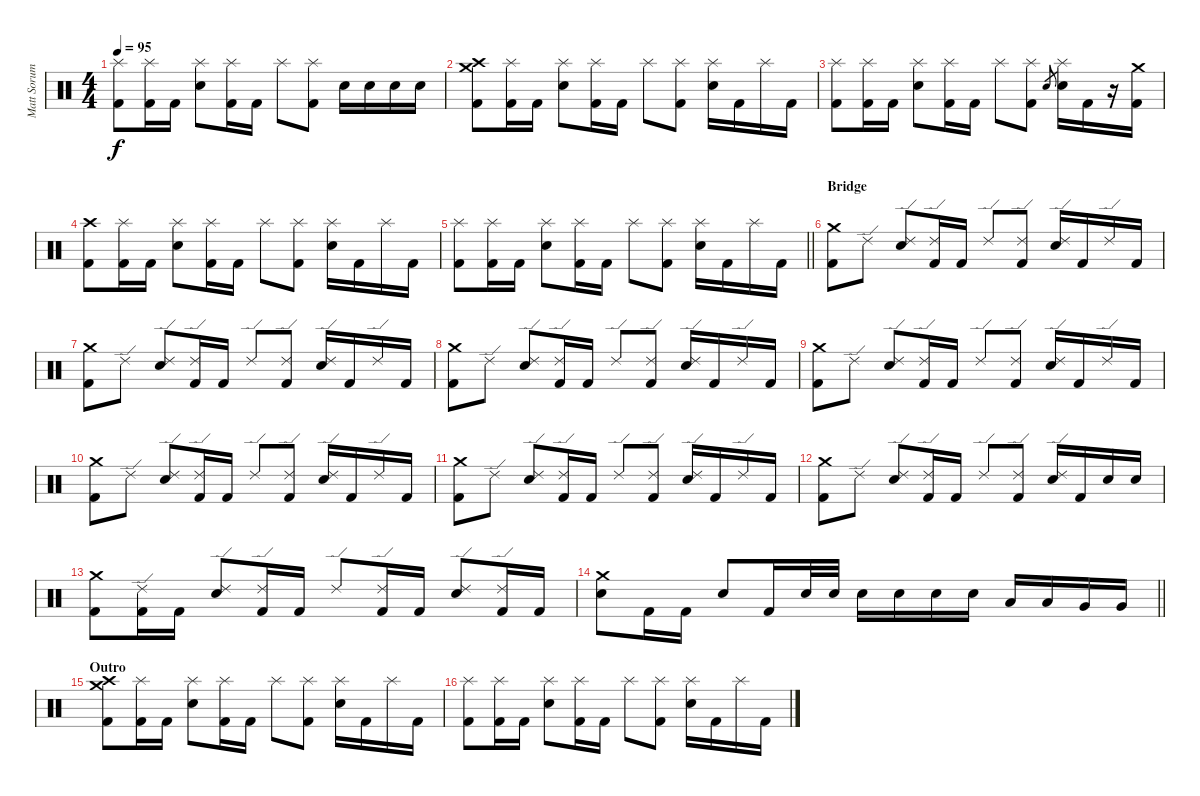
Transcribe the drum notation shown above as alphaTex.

\track ("Matt Sorum" "Matt Sorum") {instrument percussion}
\staff {score}
\articulation defaults
\ts (4 4)
\tempo 95
\clef neutral
\ks c
("Splash (hit)" "Kick (hit) 2").8{dy f} ("Splash (hit)" "Kick (hit) 2").16 "Kick (hit) 2".16 ("Splash (hit)" "Electric Snare (hit)").8 ("Splash (hit)" "Kick (hit) 2").16 "Kick (hit) 2".16 "Splash (hit)".8 ("Splash (hit)" "Kick (hit) 2").8 "Electric Snare (hit)".16 "Electric Snare (hit)".16 "Electric Snare (hit)".16 "Electric Snare (hit)".16 |
("Crash medium (hit)" "Crash high (hit)" "Kick (hit) 2").8 ("Splash (hit)" "Kick (hit) 2").16 "Kick (hit) 2".16 ("Splash (hit)" "Electric Snare (hit)").8 ("Splash (hit)" "Kick (hit) 2").16 "Kick (hit) 2".16 "Splash (hit)".8 ("Splash (hit)" "Kick (hit) 2").8 ("Splash (hit)" "Electric Snare (hit)").16 "Kick (hit) 2".16 "Splash (hit)".16 "Kick (hit) 2".16 |
("Splash (hit)" "Kick (hit) 2").8 ("Splash (hit)" "Kick (hit) 2").16 "Kick (hit) 2".16 ("Splash (hit)" "Electric Snare (hit)").8 ("Splash (hit)" "Kick (hit) 2").16 "Kick (hit) 2".16 "Splash (hit)".8 ("Splash (hit)" "Kick (hit) 2").8 "Electric Snare (hit)".8{gr} ("Splash (hit)" "Electric Snare (hit)").16 "Kick (hit) 2".16 r.16 ("Crash medium (hit)" "Kick (hit) 2").16 |
("Crash high (hit)" "Kick (hit) 2").8 ("Splash (hit)" "Kick (hit) 2").16 "Kick (hit) 2".16 ("Splash (hit)" "Electric Snare (hit)").8 ("Splash (hit)" "Kick (hit) 2").16 "Kick (hit) 2".16 "Splash (hit)".8 ("Splash (hit)" "Kick (hit) 2").8 ("Splash (hit)" "Electric Snare (hit)").16 "Kick (hit) 2".16 "Splash (hit)".16 "Kick (hit) 2".16 |
\barLineRight lightlight
("Splash (hit)" "Kick (hit) 2").8 ("Splash (hit)" "Kick (hit) 2").16 "Kick (hit) 2".16 ("Splash (hit)" "Electric Snare (hit)").8 ("Splash (hit)" "Kick (hit) 2").16 "Kick (hit) 2".16 "Splash (hit)".8 ("Splash (hit)" "Kick (hit) 2").8 ("Splash (hit)" "Electric Snare (hit)").16 "Kick (hit) 2".16 "Splash (hit)".16 "Kick (hit) 2".16 |
\section ("" "Bridge")
("Crash medium (hit)" "Kick (hit) 2").8 "Ride (edge) 2".8 ("Ride (edge) 2" "Electric Snare (hit)").8 ("Ride (edge) 2" "Kick (hit) 2").16 "Kick (hit) 2".16 "Ride (edge) 2".8 ("Ride (edge) 2" "Kick (hit) 2").8 ("Ride (edge) 2" "Electric Snare (hit)").16 "Kick (hit) 2".16 "Ride (edge) 2".16 "Kick (hit) 2".16 |
("Crash medium (hit)" "Kick (hit) 2").8 "Ride (edge) 2".8 ("Ride (edge) 2" "Electric Snare (hit)").8 ("Ride (edge) 2" "Kick (hit) 2").16 "Kick (hit) 2".16 "Ride (edge) 2".8 ("Ride (edge) 2" "Kick (hit) 2").8 ("Ride (edge) 2" "Electric Snare (hit)").16 "Kick (hit) 2".16 "Ride (edge) 2".16 "Kick (hit) 2".16 |
("Crash medium (hit)" "Kick (hit) 2").8 "Ride (edge) 2".8 ("Ride (edge) 2" "Electric Snare (hit)").8 ("Ride (edge) 2" "Kick (hit) 2").16 "Kick (hit) 2".16 "Ride (edge) 2".8 ("Ride (edge) 2" "Kick (hit) 2").8 ("Ride (edge) 2" "Electric Snare (hit)").16 "Kick (hit) 2".16 "Ride (edge) 2".16 "Kick (hit) 2".16 |
("Crash medium (hit)" "Kick (hit) 2").8 "Ride (edge) 2".8 ("Ride (edge) 2" "Electric Snare (hit)").8 ("Ride (edge) 2" "Kick (hit) 2").16 "Kick (hit) 2".16 "Ride (edge) 2".8 ("Ride (edge) 2" "Kick (hit) 2").8 ("Ride (edge) 2" "Electric Snare (hit)").16 "Kick (hit) 2".16 "Ride (edge) 2".16 "Kick (hit) 2".16 |
("Crash medium (hit)" "Kick (hit) 2").8 "Ride (edge) 2".8 ("Ride (edge) 2" "Electric Snare (hit)").8 ("Ride (edge) 2" "Kick (hit) 2").16 "Kick (hit) 2".16 "Ride (edge) 2".8 ("Ride (edge) 2" "Kick (hit) 2").8 ("Ride (edge) 2" "Electric Snare (hit)").16 "Kick (hit) 2".16 "Ride (edge) 2".16 "Kick (hit) 2".16 |
("Crash medium (hit)" "Kick (hit) 2").8 "Ride (edge) 2".8 ("Ride (edge) 2" "Electric Snare (hit)").8 ("Ride (edge) 2" "Kick (hit) 2").16 "Kick (hit) 2".16 "Ride (edge) 2".8 ("Ride (edge) 2" "Kick (hit) 2").8 ("Ride (edge) 2" "Electric Snare (hit)").16 "Kick (hit) 2".16 "Ride (edge) 2".16 "Kick (hit) 2".16 |
("Crash medium (hit)" "Kick (hit) 2").8 "Ride (edge) 2".8 ("Ride (edge) 2" "Electric Snare (hit)").8 ("Ride (edge) 2" "Kick (hit) 2").16 "Kick (hit) 2".16 "Ride (edge) 2".8 ("Ride (edge) 2" "Kick (hit) 2").8 ("Ride (edge) 2" "Electric Snare (hit)").16 "Kick (hit) 2".16 "Electric Snare (hit)".16 "Electric Snare (hit)".16 |
("Crash medium (hit)" "Kick (hit) 2").8 ("Ride (edge) 2" "Kick (hit) 2").16 "Kick (hit) 2".16 ("Ride (edge) 2" "Electric Snare (hit)").8 ("Ride (edge) 2" "Kick (hit) 2").16 "Kick (hit) 2".16 "Ride (edge) 2".8 ("Ride (edge) 2" "Kick (hit) 2").16 "Kick (hit) 2".16 ("Ride (edge) 2" "Electric Snare (hit)").8 ("Ride (edge) 2" "Kick (hit) 2").16 "Kick (hit) 2".16 |
\barLineRight lightlight
("Crash medium (hit)" "Electric Snare (hit)").8 "Kick (hit) 2".16 "Kick (hit) 2".16 "Electric Snare (hit)".8 "Kick (hit) 2".16 "Electric Snare (hit)".32 "Electric Snare (hit)".32 "Electric Snare (hit)".16 "Electric Snare (hit)".16 "Electric Snare (hit)".16 "Electric Snare (hit)".16 "Low Tom (hit)".16 "Low Tom (hit)".16 "Very Low Tom (hit)".16 "Very Low Tom (hit)".16 |
\section ("" "Outro")
("Crash medium (hit)" "Crash high (hit)" "Kick (hit) 2").8 ("Splash (hit)" "Kick (hit) 2").16 "Kick (hit) 2".16 ("Splash (hit)" "Electric Snare (hit)").8 ("Splash (hit)" "Kick (hit) 2").16 "Kick (hit) 2".16 "Splash (hit)".8 ("Splash (hit)" "Kick (hit) 2").8 ("Splash (hit)" "Electric Snare (hit)").16 "Kick (hit) 2".16 "Splash (hit)".16 "Kick (hit) 2".16 |
("Splash (hit)" "Kick (hit) 2").8 ("Splash (hit)" "Kick (hit) 2").16 "Kick (hit) 2".16 ("Splash (hit)" "Electric Snare (hit)").8 ("Splash (hit)" "Kick (hit) 2").16 "Kick (hit) 2".16 "Splash (hit)".8 ("Splash (hit)" "Kick (hit) 2").8 ("Splash (hit)" "Electric Snare (hit)").16 "Kick (hit) 2".16 "Splash (hit)".16 "Kick (hit) 2".16
